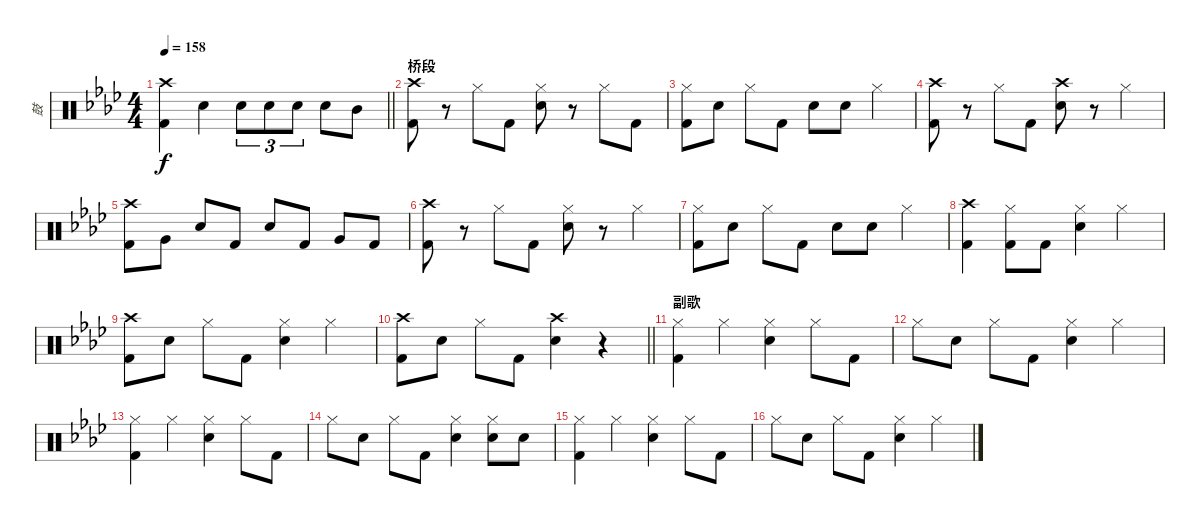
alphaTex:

\track ("鼓" "鼓") {instrument percussion}
\staff {score}
\articulation defaults
\ts (4 4)
\tempo 158
\clef neutral
\barLineRight lightlight
\ks ab
("Crash high (hit)" "Kick (hit) 2").4{dy f} "Electric Snare (hit)".4 "Electric Snare (hit)".8{tu (3 2)} "Electric Snare (hit)".8{tu (3 2)} "Electric Snare (hit)".8{tu (3 2)} "Electric Snare (hit)".8 "Mid Tom (hit)".8 |
\section ("" "桥段")
("Crash high (hit)" "Kick (hit) 2").8 r.8 "Hi-Hat (closed)".8 "Kick (hit) 2".8 ("Hi-Hat (closed)" "Electric Snare (hit)").8 r.8 "Hi-Hat (closed)".8 "Kick (hit) 2".8 |
("Hi-Hat (closed)" "Kick (hit) 2").8 "Electric Snare (hit)".8 "Hi-Hat (closed)".8 "Kick (hit) 2".8 "Electric Snare (hit)".8 "Electric Snare (hit)".8 "Hi-Hat (closed)".4 |
("Crash high (hit)" "Kick (hit) 2").8 r.8 "Hi-Hat (closed)".8 "Kick (hit) 2".8 ("Electric Snare (hit)" "Crash high (hit)").8 r.8 "Hi-Hat (closed)".4 |
("Crash high (hit)" "Kick (hit) 2").8 "Very Low Tom (hit)".8 "Electric Snare (hit)".8 "Kick (hit) 2".8 "Electric Snare (hit)".8 "Kick (hit) 2".8 "Very Low Tom (hit)".8 "Kick (hit) 2".8 |
("Crash high (hit)" "Kick (hit) 2").8 r.8 "Hi-Hat (closed)".8 "Kick (hit) 2".8 ("Hi-Hat (closed)" "Electric Snare (hit)").8 r.8 "Hi-Hat (closed)".4 |
("Hi-Hat (closed)" "Kick (hit) 2").8 "Electric Snare (hit)".8 "Hi-Hat (closed)".8 "Kick (hit) 2".8 "Electric Snare (hit)".8 "Electric Snare (hit)".8 "Hi-Hat (closed)".4 |
("Crash high (hit)" "Kick (hit) 2").4 ("Kick (hit) 2" "Hi-Hat (closed)").8 "Kick (hit) 2".8 ("Hi-Hat (closed)" "Electric Snare (hit)").4 "Hi-Hat (closed)".4 |
("Crash high (hit)" "Kick (hit) 2").8 "Electric Snare (hit)".8 "Hi-Hat (closed)".8 "Kick (hit) 2".8 ("Hi-Hat (closed)" "Electric Snare (hit)").4 "Hi-Hat (closed)".4 |
\barLineRight lightlight
("Crash high (hit)" "Kick (hit) 2").8 "Electric Snare (hit)".8 "Hi-Hat (closed)".8 "Kick (hit) 2".8 ("Crash high (hit)" "Electric Snare (hit)").4 r.4 |
\section ("" "副歌")
("Hi-Hat (closed)" "Kick (hit) 2").4 "Hi-Hat (closed)".4 ("Hi-Hat (closed)" "Electric Snare (hit)").4 "Hi-Hat (closed)".8 "Kick (hit) 2".8 |
"Hi-Hat (closed)".8 "Electric Snare (hit)".8 "Hi-Hat (closed)".8 "Kick (hit) 2".8 ("Hi-Hat (closed)" "Electric Snare (hit)").4 "Hi-Hat (closed)".4 |
("Hi-Hat (closed)" "Kick (hit) 2").4 "Hi-Hat (closed)".4 ("Hi-Hat (closed)" "Electric Snare (hit)").4 "Hi-Hat (closed)".8 "Kick (hit) 2".8 |
"Hi-Hat (closed)".8 "Electric Snare (hit)".8 "Hi-Hat (closed)".8 "Kick (hit) 2".8 ("Hi-Hat (closed)" "Electric Snare (hit)").4 ("Electric Snare (hit)" "Hi-Hat (closed)").8 "Electric Snare (hit)".8 |
("Hi-Hat (closed)" "Kick (hit) 2").4 "Hi-Hat (closed)".4 ("Hi-Hat (closed)" "Electric Snare (hit)").4 "Hi-Hat (closed)".8 "Kick (hit) 2".8 |
"Hi-Hat (closed)".8 "Electric Snare (hit)".8 "Hi-Hat (closed)".8 "Kick (hit) 2".8 ("Hi-Hat (closed)" "Electric Snare (hit)").4 "Hi-Hat (closed)".4
